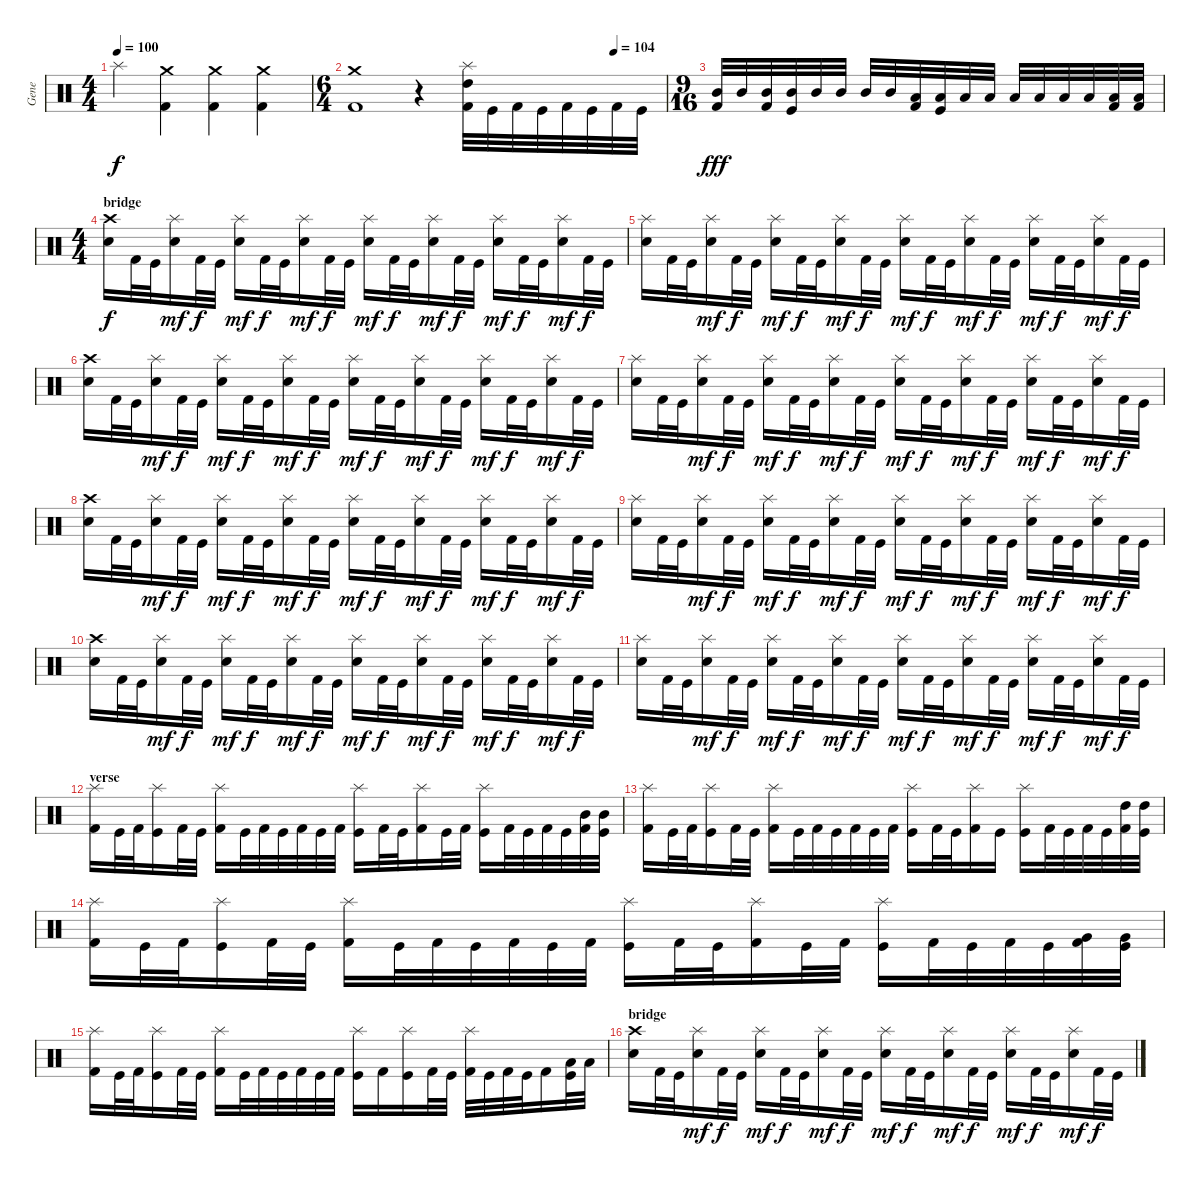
\track ("Gene" "Gene") {instrument percussion}
\staff {score}
\articulation defaults
\ts (4 4)
\tempo 100
\clef neutral
\ks c "Splash (hit)".4{dy f}
("Crash medium (hit)" "Kick (hit) 2").4 ("Crash medium (hit)" "Kick (hit) 2").4 ("Crash medium (hit)" "Kick (hit) 2").4 |
\ts (6 4)
\tempo (104 0.8333333333333334)
("Crash medium (hit)" "Kick (hit) 2").1 r.4 ("Splash (hit)" "High Tom (hit)" "Kick (hit) 2").32 "Kick (hit)".32 "Kick (hit) 2".32 "Kick (hit)".32 "Kick (hit) 2".32 "Kick (hit)".32 "Kick (hit) 2".32 "Kick (hit)".32 |
\ts (9 16)
("Mid Tom (hit)" "Kick (hit) 2").32{dy fff} "Mid Tom (hit)".32 ("Mid Tom (hit)" "Kick (hit) 2").32 ("Mid Tom (hit)" "Kick (hit)").32 "Mid Tom (hit)".32 "Mid Tom (hit)".32 "Mid Tom (hit)".32 "Mid Tom (hit)".32 ("Low Tom (hit)" "Kick (hit) 2").32 ("Low Tom (hit)" "Kick (hit)").32 "Low Tom (hit)".32 "Low Tom (hit)".32 "Low Tom (hit)".32 "Low Tom (hit)".32 "Low Tom (hit)".32 "Low Tom (hit)".32 ("Low Tom (hit)" "Kick (hit) 2").32 ("Low Tom (hit)" "Kick (hit) 2").32 |
\ts (4 4)
\section ("" "bridge")
("Crash high (hit)" "Snare (hit) 2").16{dy f} "Kick (hit) 2".32 "Kick (hit)".32 ("Splash (hit)" "Snare (hit) 2").16{dy mf} "Kick (hit) 2".32{dy f} "Kick (hit)".32 ("Splash (hit)" "Snare (hit) 2").16{dy mf} "Kick (hit) 2".32{dy f} "Kick (hit)".32 ("Splash (hit)" "Snare (hit) 2").16{dy mf} "Kick (hit) 2".32{dy f} "Kick (hit)".32 ("Splash (hit)" "Snare (hit) 2").16{dy mf} "Kick (hit) 2".32{dy f} "Kick (hit)".32 ("Splash (hit)" "Snare (hit) 2").16{dy mf} "Kick (hit) 2".32{dy f} "Kick (hit)".32 ("Splash (hit)" "Snare (hit) 2").16{dy mf} "Kick (hit) 2".32{dy f} "Kick (hit)".32 ("Splash (hit)" "Snare (hit) 2").16{dy mf} "Kick (hit) 2".32{dy f} "Kick (hit)".32 |
("Splash (hit)" "Snare (hit) 2").16 "Kick (hit) 2".32 "Kick (hit)".32 ("Splash (hit)" "Snare (hit) 2").16{dy mf} "Kick (hit) 2".32{dy f} "Kick (hit)".32 ("Splash (hit)" "Snare (hit) 2").16{dy mf} "Kick (hit) 2".32{dy f} "Kick (hit)".32 ("Splash (hit)" "Snare (hit) 2").16{dy mf} "Kick (hit) 2".32{dy f} "Kick (hit)".32 ("Splash (hit)" "Snare (hit) 2").16{dy mf} "Kick (hit) 2".32{dy f} "Kick (hit)".32 ("Splash (hit)" "Snare (hit) 2").16{dy mf} "Kick (hit) 2".32{dy f} "Kick (hit)".32 ("Splash (hit)" "Snare (hit) 2").16{dy mf} "Kick (hit) 2".32{dy f} "Kick (hit)".32 ("Splash (hit)" "Snare (hit) 2").16{dy mf} "Kick (hit) 2".32{dy f} "Kick (hit)".32 |
("Crash high (hit)" "Snare (hit) 2").16 "Kick (hit) 2".32 "Kick (hit)".32 ("Splash (hit)" "Snare (hit) 2").16{dy mf} "Kick (hit) 2".32{dy f} "Kick (hit)".32 ("Splash (hit)" "Snare (hit) 2").16{dy mf} "Kick (hit) 2".32{dy f} "Kick (hit)".32 ("Splash (hit)" "Snare (hit) 2").16{dy mf} "Kick (hit) 2".32{dy f} "Kick (hit)".32 ("Splash (hit)" "Snare (hit) 2").16{dy mf} "Kick (hit) 2".32{dy f} "Kick (hit)".32 ("Splash (hit)" "Snare (hit) 2").16{dy mf} "Kick (hit) 2".32{dy f} "Kick (hit)".32 ("Splash (hit)" "Snare (hit) 2").16{dy mf} "Kick (hit) 2".32{dy f} "Kick (hit)".32 ("Splash (hit)" "Snare (hit) 2").16{dy mf} "Kick (hit) 2".32{dy f} "Kick (hit)".32 |
("Splash (hit)" "Snare (hit) 2").16 "Kick (hit) 2".32 "Kick (hit)".32 ("Splash (hit)" "Snare (hit) 2").16{dy mf} "Kick (hit) 2".32{dy f} "Kick (hit)".32 ("Splash (hit)" "Snare (hit) 2").16{dy mf} "Kick (hit) 2".32{dy f} "Kick (hit)".32 ("Splash (hit)" "Snare (hit) 2").16{dy mf} "Kick (hit) 2".32{dy f} "Kick (hit)".32 ("Splash (hit)" "Snare (hit) 2").16{dy mf} "Kick (hit) 2".32{dy f} "Kick (hit)".32 ("Splash (hit)" "Snare (hit) 2").16{dy mf} "Kick (hit) 2".32{dy f} "Kick (hit)".32 ("Splash (hit)" "Snare (hit) 2").16{dy mf} "Kick (hit) 2".32{dy f} "Kick (hit)".32 ("Splash (hit)" "Snare (hit) 2").16{dy mf} "Kick (hit) 2".32{dy f} "Kick (hit)".32 |
("Crash high (hit)" "Snare (hit) 2").16 "Kick (hit) 2".32 "Kick (hit)".32 ("Splash (hit)" "Snare (hit) 2").16{dy mf} "Kick (hit) 2".32{dy f} "Kick (hit)".32 ("Splash (hit)" "Snare (hit) 2").16{dy mf} "Kick (hit) 2".32{dy f} "Kick (hit)".32 ("Splash (hit)" "Snare (hit) 2").16{dy mf} "Kick (hit) 2".32{dy f} "Kick (hit)".32 ("Splash (hit)" "Snare (hit) 2").16{dy mf} "Kick (hit) 2".32{dy f} "Kick (hit)".32 ("Splash (hit)" "Snare (hit) 2").16{dy mf} "Kick (hit) 2".32{dy f} "Kick (hit)".32 ("Splash (hit)" "Snare (hit) 2").16{dy mf} "Kick (hit) 2".32{dy f} "Kick (hit)".32 ("Splash (hit)" "Snare (hit) 2").16{dy mf} "Kick (hit) 2".32{dy f} "Kick (hit)".32 |
("Splash (hit)" "Snare (hit) 2").16 "Kick (hit) 2".32 "Kick (hit)".32 ("Splash (hit)" "Snare (hit) 2").16{dy mf} "Kick (hit) 2".32{dy f} "Kick (hit)".32 ("Splash (hit)" "Snare (hit) 2").16{dy mf} "Kick (hit) 2".32{dy f} "Kick (hit)".32 ("Splash (hit)" "Snare (hit) 2").16{dy mf} "Kick (hit) 2".32{dy f} "Kick (hit)".32 ("Splash (hit)" "Snare (hit) 2").16{dy mf} "Kick (hit) 2".32{dy f} "Kick (hit)".32 ("Splash (hit)" "Snare (hit) 2").16{dy mf} "Kick (hit) 2".32{dy f} "Kick (hit)".32 ("Splash (hit)" "Snare (hit) 2").16{dy mf} "Kick (hit) 2".32{dy f} "Kick (hit)".32 ("Splash (hit)" "Snare (hit) 2").16{dy mf} "Kick (hit) 2".32{dy f} "Kick (hit)".32 |
("Crash high (hit)" "Snare (hit) 2").16 "Kick (hit) 2".32 "Kick (hit)".32 ("Splash (hit)" "Snare (hit) 2").16{dy mf} "Kick (hit) 2".32{dy f} "Kick (hit)".32 ("Splash (hit)" "Snare (hit) 2").16{dy mf} "Kick (hit) 2".32{dy f} "Kick (hit)".32 ("Splash (hit)" "Snare (hit) 2").16{dy mf} "Kick (hit) 2".32{dy f} "Kick (hit)".32 ("Splash (hit)" "Snare (hit) 2").16{dy mf} "Kick (hit) 2".32{dy f} "Kick (hit)".32 ("Splash (hit)" "Snare (hit) 2").16{dy mf} "Kick (hit) 2".32{dy f} "Kick (hit)".32 ("Splash (hit)" "Snare (hit) 2").16{dy mf} "Kick (hit) 2".32{dy f} "Kick (hit)".32 ("Splash (hit)" "Snare (hit) 2").16{dy mf} "Kick (hit) 2".32{dy f} "Kick (hit)".32 |
("Splash (hit)" "Snare (hit) 2").16 "Kick (hit) 2".32 "Kick (hit)".32 ("Splash (hit)" "Snare (hit) 2").16{dy mf} "Kick (hit) 2".32{dy f} "Kick (hit)".32 ("Splash (hit)" "Snare (hit) 2").16{dy mf} "Kick (hit) 2".32{dy f} "Kick (hit)".32 ("Splash (hit)" "Snare (hit) 2").16{dy mf} "Kick (hit) 2".32{dy f} "Kick (hit)".32 ("Splash (hit)" "Snare (hit) 2").16{dy mf} "Kick (hit) 2".32{dy f} "Kick (hit)".32 ("Splash (hit)" "Snare (hit) 2").16{dy mf} "Kick (hit) 2".32{dy f} "Kick (hit)".32 ("Splash (hit)" "Snare (hit) 2").16{dy mf} "Kick (hit) 2".32{dy f} "Kick (hit)".32 ("Splash (hit)" "Snare (hit) 2").16{dy mf} "Kick (hit) 2".32{dy f} "Kick (hit)".32 |
\section ("" "verse")
("Splash (hit)" "Kick (hit) 2").16 "Kick (hit)".32 "Kick (hit) 2".32 ("Splash (hit)" "Kick (hit)").16 "Kick (hit) 2".32 "Kick (hit)".32 ("Splash (hit)" "Kick (hit) 2").16 "Kick (hit)".32 "Kick (hit) 2".32 "Kick (hit)".32 "Kick (hit) 2".32 "Kick (hit)".32 "Kick (hit) 2".32 ("Splash (hit)" "Kick (hit)").16 "Kick (hit) 2".32 "Kick (hit)".32 ("Splash (hit)" "Kick (hit) 2").16 "Kick (hit)".32 "Kick (hit) 2".32 ("Splash (hit)" "Kick (hit)").16 "Kick (hit) 2".32 "Kick (hit)".32 "Kick (hit) 2".32 "Kick (hit)".32 ("Mid Tom (hit)" "Kick (hit) 2").32 ("Mid Tom (hit)" "Kick (hit)").32 |
("Splash (hit)" "Kick (hit) 2").16 "Kick (hit)".32 "Kick (hit) 2".32 ("Splash (hit)" "Kick (hit)").16 "Kick (hit) 2".32 "Kick (hit)".32 ("Splash (hit)" "Kick (hit) 2").16 "Kick (hit)".32 "Kick (hit) 2".32 "Kick (hit)".32 "Kick (hit) 2".32 "Kick (hit)".32 "Kick (hit) 2".32 ("Splash (hit)" "Kick (hit)").16 "Kick (hit) 2".32 "Kick (hit)".32 ("Splash (hit)" "Kick (hit) 2").16 "Kick (hit)".16 ("Splash (hit)" "Kick (hit)").16 "Kick (hit) 2".32 "Kick (hit)".32 "Kick (hit) 2".32 "Kick (hit)".32 ("High Tom (hit)" "Kick (hit) 2").32 ("High Tom (hit)" "Kick (hit)").32 |
("Splash (hit)" "Kick (hit) 2").16 "Kick (hit)".32 "Kick (hit) 2".32 ("Splash (hit)" "Kick (hit)").16 "Kick (hit) 2".32 "Kick (hit)".32 ("Splash (hit)" "Kick (hit) 2").16 "Kick (hit)".32 "Kick (hit) 2".32 "Kick (hit)".32 "Kick (hit) 2".32 "Kick (hit)".32 "Kick (hit) 2".32 ("Splash (hit)" "Kick (hit)").16 "Kick (hit) 2".32 "Kick (hit)".32 ("Splash (hit)" "Kick (hit) 2").16 "Kick (hit)".32 "Kick (hit) 2".32 ("Splash (hit)" "Kick (hit)").16 "Kick (hit) 2".32 "Kick (hit)".32 "Kick (hit) 2".32 "Kick (hit)".32 ("Very Low Tom (hit)" "Kick (hit) 2").32 ("Very Low Tom (hit)" "Kick (hit)").32 |
("Splash (hit)" "Kick (hit) 2").16 "Kick (hit)".32 "Kick (hit) 2".32 ("Splash (hit)" "Kick (hit)").16 "Kick (hit) 2".32 "Kick (hit)".32 ("Splash (hit)" "Kick (hit) 2").16 "Kick (hit)".32 "Kick (hit) 2".32 "Kick (hit)".32 "Kick (hit) 2".32 "Kick (hit)".32 "Kick (hit) 2".32 ("Splash (hit)" "Kick (hit)").16 "Kick (hit) 2".16 ("Splash (hit)" "Kick (hit)").16 "Kick (hit) 2".32 "Kick (hit)".32 ("Splash (hit)" "Kick (hit) 2").32 "Kick (hit)".32 "Kick (hit) 2".32 "Kick (hit)".32 "Kick (hit) 2".16 ("Low Tom (hit)" "Kick (hit)").32 "Low Tom (hit)".32 |
\section ("" "bridge")
("Crash high (hit)" "Snare (hit) 2").16 "Kick (hit) 2".32 "Kick (hit)".32 ("Splash (hit)" "Snare (hit) 2").16{dy mf} "Kick (hit) 2".32{dy f} "Kick (hit)".32 ("Splash (hit)" "Snare (hit) 2").16{dy mf} "Kick (hit) 2".32{dy f} "Kick (hit)".32 ("Splash (hit)" "Snare (hit) 2").16{dy mf} "Kick (hit) 2".32{dy f} "Kick (hit)".32 ("Splash (hit)" "Snare (hit) 2").16{dy mf} "Kick (hit) 2".32{dy f} "Kick (hit)".32 ("Splash (hit)" "Snare (hit) 2").16{dy mf} "Kick (hit) 2".32{dy f} "Kick (hit)".32 ("Splash (hit)" "Snare (hit) 2").16{dy mf} "Kick (hit) 2".32{dy f} "Kick (hit)".32 ("Splash (hit)" "Snare (hit) 2").16{dy mf} "Kick (hit) 2".32{dy f} "Kick (hit)".32
